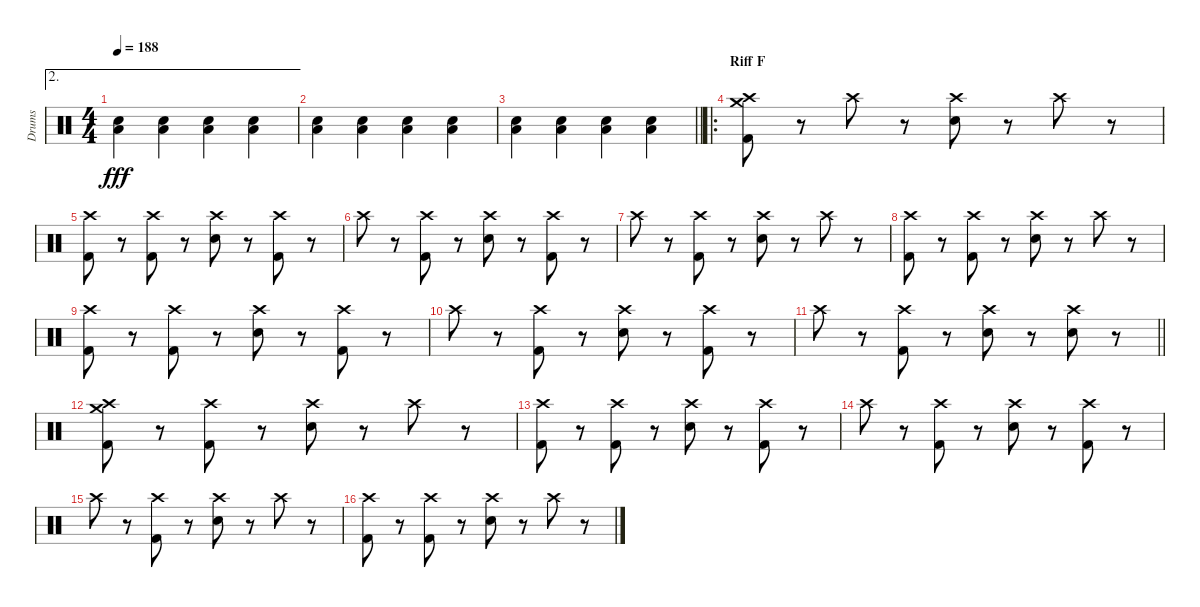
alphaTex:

\track ("Drums" "Drums") {instrument percussion}
\staff {score}
\articulation defaults
\ae 2
\ts (4 4)
\tempo 188
\clef neutral
\ks c
("Electric Snare (hit)" "Low Tom (hit)").4{dy fff} ("Electric Snare (hit)" "Low Tom (hit)").4 ("Electric Snare (hit)" "Low Tom (hit)").4 ("Electric Snare (hit)" "Low Tom (hit)").4 |
("Electric Snare (hit)" "Low Tom (hit)").4 ("Electric Snare (hit)" "Low Tom (hit)").4 ("Electric Snare (hit)" "Low Tom (hit)").4 ("Electric Snare (hit)" "Low Tom (hit)").4 |
\barLineRight lightlight
("Electric Snare (hit)" "Low Tom (hit)").4 ("Electric Snare (hit)" "Low Tom (hit)").4 ("Electric Snare (hit)" "Low Tom (hit)").4 ("Electric Snare (hit)" "Low Tom (hit)").4 |
\ro
\section ("" "Riff F")
("Crash medium (hit)" "Crash high (hit)" "Kick (hit) 2").8 r.8 "Crash high (hit)".8 r.8 ("Crash high (hit)" "Electric Snare (hit)").8 r.8 "Crash high (hit)".8 r.8 |
("Crash high (hit)" "Kick (hit) 2").8 r.8 ("Crash high (hit)" "Kick (hit) 2").8 r.8 ("Crash high (hit)" "Electric Snare (hit)").8 r.8 ("Crash high (hit)" "Kick (hit) 2").8 r.8 |
"Crash high (hit)".8 r.8 ("Crash high (hit)" "Kick (hit) 2").8 r.8 ("Crash high (hit)" "Electric Snare (hit)").8 r.8 ("Crash high (hit)" "Kick (hit) 2").8 r.8 |
"Crash high (hit)".8 r.8 ("Crash high (hit)" "Kick (hit) 2").8 r.8 ("Crash high (hit)" "Electric Snare (hit)").8 r.8 "Crash high (hit)".8 r.8 |
("Crash high (hit)" "Kick (hit) 2").8 r.8 ("Crash high (hit)" "Kick (hit) 2").8 r.8 ("Crash high (hit)" "Electric Snare (hit)").8 r.8 "Crash high (hit)".8 r.8 |
("Crash high (hit)" "Kick (hit) 2").8 r.8 ("Crash high (hit)" "Kick (hit) 2").8 r.8 ("Crash high (hit)" "Electric Snare (hit)").8 r.8 ("Crash high (hit)" "Kick (hit) 2").8 r.8 |
"Crash high (hit)".8 r.8 ("Crash high (hit)" "Kick (hit) 2").8 r.8 ("Crash high (hit)" "Electric Snare (hit)").8 r.8 ("Crash high (hit)" "Kick (hit) 2").8 r.8 |
\barLineRight lightlight "Crash high (hit)".8
r.8 ("Crash high (hit)" "Kick (hit) 2").8 r.8 ("Crash high (hit)" "Electric Snare (hit)").8 r.8 ("Crash high (hit)" "Electric Snare (hit)").8 r.8 |
("Crash medium (hit)" "Crash high (hit)" "Kick (hit) 2").8 r.8 ("Crash high (hit)" "Kick (hit) 2").8 r.8 ("Crash high (hit)" "Electric Snare (hit)").8 r.8 "Crash high (hit)".8 r.8 |
("Crash high (hit)" "Kick (hit) 2").8 r.8 ("Crash high (hit)" "Kick (hit) 2").8 r.8 ("Crash high (hit)" "Electric Snare (hit)").8 r.8 ("Crash high (hit)" "Kick (hit) 2").8 r.8 |
"Crash high (hit)".8 r.8 ("Crash high (hit)" "Kick (hit) 2").8 r.8 ("Crash high (hit)" "Electric Snare (hit)").8 r.8 ("Crash high (hit)" "Kick (hit) 2").8 r.8 |
"Crash high (hit)".8 r.8 ("Crash high (hit)" "Kick (hit) 2").8 r.8 ("Crash high (hit)" "Electric Snare (hit)").8 r.8 "Crash high (hit)".8 r.8 |
("Crash high (hit)" "Kick (hit) 2").8 r.8 ("Crash high (hit)" "Kick (hit) 2").8 r.8 ("Crash high (hit)" "Electric Snare (hit)").8 r.8 "Crash high (hit)".8 r.8
